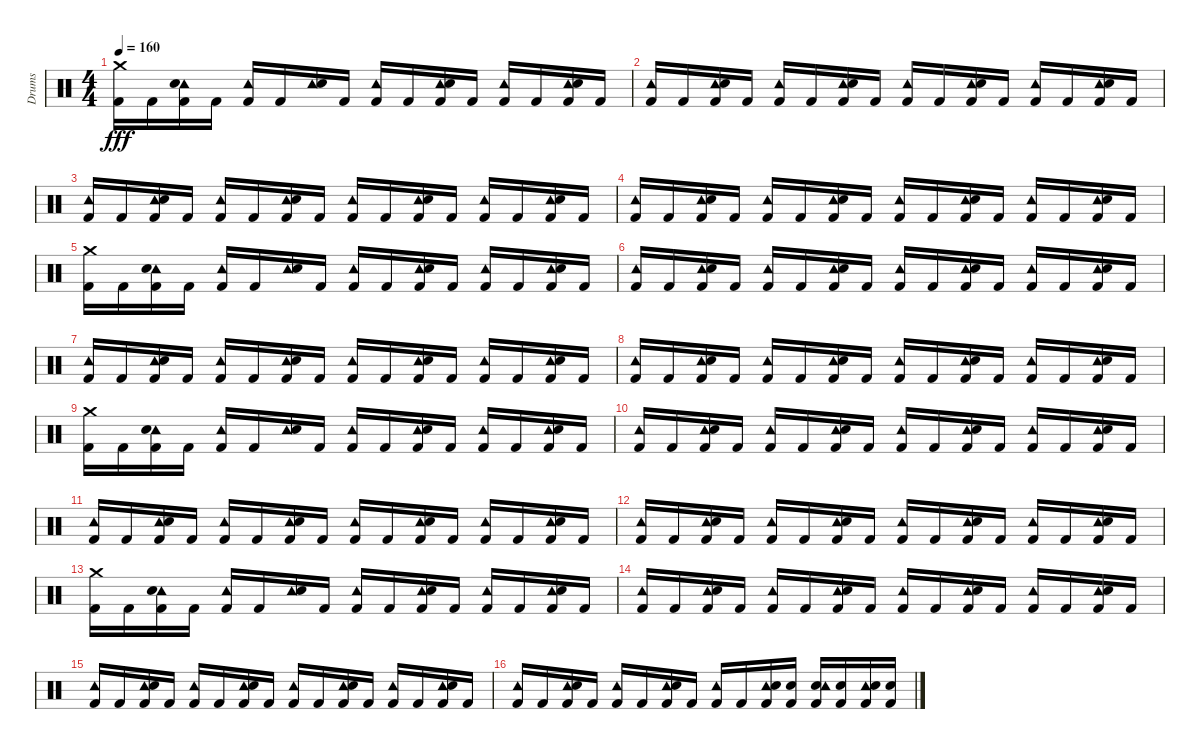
\track ("Drums" "Drums") {instrument percussion}
\staff {score}
\articulation defaults
\ts (4 4)
\tempo 160
\clef neutral
\ks c
("Crash medium (hit)" "Kick (hit) 2").16{dy fff} "Kick (hit) 2".16 ("Kick (hit) 2" "Tambourine (hit)" "Electric Snare (hit)").16 "Kick (hit) 2".16 ("Kick (hit) 2" "Tambourine (hit)").16 "Kick (hit) 2".16 ("Tambourine (hit)" "Electric Snare (hit)").16 "Kick (hit) 2".16 ("Kick (hit) 2" "Tambourine (hit)").16 "Kick (hit) 2".16 ("Kick (hit) 2" "Tambourine (hit)" "Electric Snare (hit)").16 "Kick (hit) 2".16 ("Kick (hit) 2" "Tambourine (hit)").16 "Kick (hit) 2".16 ("Kick (hit) 2" "Tambourine (hit)" "Electric Snare (hit)").16 "Kick (hit) 2".16 |
("Kick (hit) 2" "Tambourine (hit)").16 "Kick (hit) 2".16 ("Kick (hit) 2" "Tambourine (hit)" "Electric Snare (hit)").16 "Kick (hit) 2".16 ("Kick (hit) 2" "Tambourine (hit)").16 "Kick (hit) 2".16 ("Kick (hit) 2" "Tambourine (hit)" "Electric Snare (hit)").16 "Kick (hit) 2".16 ("Kick (hit) 2" "Tambourine (hit)").16 "Kick (hit) 2".16 ("Kick (hit) 2" "Tambourine (hit)" "Electric Snare (hit)").16 "Kick (hit) 2".16 ("Kick (hit) 2" "Tambourine (hit)").16 "Kick (hit) 2".16 ("Kick (hit) 2" "Tambourine (hit)" "Electric Snare (hit)").16 "Kick (hit) 2".16 |
("Kick (hit) 2" "Tambourine (hit)").16 "Kick (hit) 2".16 ("Kick (hit) 2" "Tambourine (hit)" "Electric Snare (hit)").16 "Kick (hit) 2".16 ("Kick (hit) 2" "Tambourine (hit)").16 "Kick (hit) 2".16 ("Kick (hit) 2" "Tambourine (hit)" "Electric Snare (hit)").16 "Kick (hit) 2".16 ("Kick (hit) 2" "Tambourine (hit)").16 "Kick (hit) 2".16 ("Kick (hit) 2" "Tambourine (hit)" "Electric Snare (hit)").16 "Kick (hit) 2".16 ("Kick (hit) 2" "Tambourine (hit)").16 "Kick (hit) 2".16 ("Kick (hit) 2" "Tambourine (hit)" "Electric Snare (hit)").16 "Kick (hit) 2".16 |
("Kick (hit) 2" "Tambourine (hit)").16 "Kick (hit) 2".16 ("Kick (hit) 2" "Tambourine (hit)" "Electric Snare (hit)").16 "Kick (hit) 2".16 ("Kick (hit) 2" "Tambourine (hit)").16 "Kick (hit) 2".16 ("Kick (hit) 2" "Tambourine (hit)" "Electric Snare (hit)").16 "Kick (hit) 2".16 ("Kick (hit) 2" "Tambourine (hit)").16 "Kick (hit) 2".16 ("Kick (hit) 2" "Tambourine (hit)" "Electric Snare (hit)").16 "Kick (hit) 2".16 ("Kick (hit) 2" "Tambourine (hit)").16 "Kick (hit) 2".16 ("Kick (hit) 2" "Tambourine (hit)" "Electric Snare (hit)").16 "Kick (hit) 2".16 |
("Crash medium (hit)" "Kick (hit) 2").16 "Kick (hit) 2".16 ("Kick (hit) 2" "Tambourine (hit)" "Electric Snare (hit)").16 "Kick (hit) 2".16 ("Kick (hit) 2" "Tambourine (hit)").16 "Kick (hit) 2".16 ("Tambourine (hit)" "Electric Snare (hit)").16 "Kick (hit) 2".16 ("Kick (hit) 2" "Tambourine (hit)").16 "Kick (hit) 2".16 ("Kick (hit) 2" "Tambourine (hit)" "Electric Snare (hit)").16 "Kick (hit) 2".16 ("Kick (hit) 2" "Tambourine (hit)").16 "Kick (hit) 2".16 ("Kick (hit) 2" "Tambourine (hit)" "Electric Snare (hit)").16 "Kick (hit) 2".16 |
("Kick (hit) 2" "Tambourine (hit)").16 "Kick (hit) 2".16 ("Kick (hit) 2" "Tambourine (hit)" "Electric Snare (hit)").16 "Kick (hit) 2".16 ("Kick (hit) 2" "Tambourine (hit)").16 "Kick (hit) 2".16 ("Kick (hit) 2" "Tambourine (hit)" "Electric Snare (hit)").16 "Kick (hit) 2".16 ("Kick (hit) 2" "Tambourine (hit)").16 "Kick (hit) 2".16 ("Kick (hit) 2" "Tambourine (hit)" "Electric Snare (hit)").16 "Kick (hit) 2".16 ("Kick (hit) 2" "Tambourine (hit)").16 "Kick (hit) 2".16 ("Kick (hit) 2" "Tambourine (hit)" "Electric Snare (hit)").16 "Kick (hit) 2".16 |
("Kick (hit) 2" "Tambourine (hit)").16 "Kick (hit) 2".16 ("Kick (hit) 2" "Tambourine (hit)" "Electric Snare (hit)").16 "Kick (hit) 2".16 ("Kick (hit) 2" "Tambourine (hit)").16 "Kick (hit) 2".16 ("Kick (hit) 2" "Tambourine (hit)" "Electric Snare (hit)").16 "Kick (hit) 2".16 ("Kick (hit) 2" "Tambourine (hit)").16 "Kick (hit) 2".16 ("Kick (hit) 2" "Tambourine (hit)" "Electric Snare (hit)").16 "Kick (hit) 2".16 ("Kick (hit) 2" "Tambourine (hit)").16 "Kick (hit) 2".16 ("Kick (hit) 2" "Tambourine (hit)" "Electric Snare (hit)").16 "Kick (hit) 2".16 |
("Kick (hit) 2" "Tambourine (hit)").16 "Kick (hit) 2".16 ("Kick (hit) 2" "Tambourine (hit)" "Electric Snare (hit)").16 "Kick (hit) 2".16 ("Kick (hit) 2" "Tambourine (hit)").16 "Kick (hit) 2".16 ("Kick (hit) 2" "Tambourine (hit)" "Electric Snare (hit)").16 "Kick (hit) 2".16 ("Kick (hit) 2" "Tambourine (hit)").16 "Kick (hit) 2".16 ("Kick (hit) 2" "Tambourine (hit)" "Electric Snare (hit)").16 "Kick (hit) 2".16 ("Kick (hit) 2" "Tambourine (hit)").16 "Kick (hit) 2".16 ("Kick (hit) 2" "Tambourine (hit)" "Electric Snare (hit)").16 "Kick (hit) 2".16 |
("Crash medium (hit)" "Kick (hit) 2").16 "Kick (hit) 2".16 ("Kick (hit) 2" "Tambourine (hit)" "Electric Snare (hit)").16 "Kick (hit) 2".16 ("Kick (hit) 2" "Tambourine (hit)").16 "Kick (hit) 2".16 ("Tambourine (hit)" "Electric Snare (hit)").16 "Kick (hit) 2".16 ("Kick (hit) 2" "Tambourine (hit)").16 "Kick (hit) 2".16 ("Kick (hit) 2" "Tambourine (hit)" "Electric Snare (hit)").16 "Kick (hit) 2".16 ("Kick (hit) 2" "Tambourine (hit)").16 "Kick (hit) 2".16 ("Kick (hit) 2" "Tambourine (hit)" "Electric Snare (hit)").16 "Kick (hit) 2".16 |
("Kick (hit) 2" "Tambourine (hit)").16 "Kick (hit) 2".16 ("Kick (hit) 2" "Tambourine (hit)" "Electric Snare (hit)").16 "Kick (hit) 2".16 ("Kick (hit) 2" "Tambourine (hit)").16 "Kick (hit) 2".16 ("Kick (hit) 2" "Tambourine (hit)" "Electric Snare (hit)").16 "Kick (hit) 2".16 ("Kick (hit) 2" "Tambourine (hit)").16 "Kick (hit) 2".16 ("Kick (hit) 2" "Tambourine (hit)" "Electric Snare (hit)").16 "Kick (hit) 2".16 ("Kick (hit) 2" "Tambourine (hit)").16 "Kick (hit) 2".16 ("Kick (hit) 2" "Tambourine (hit)" "Electric Snare (hit)").16 "Kick (hit) 2".16 |
("Kick (hit) 2" "Tambourine (hit)").16 "Kick (hit) 2".16 ("Kick (hit) 2" "Tambourine (hit)" "Electric Snare (hit)").16 "Kick (hit) 2".16 ("Kick (hit) 2" "Tambourine (hit)").16 "Kick (hit) 2".16 ("Kick (hit) 2" "Tambourine (hit)" "Electric Snare (hit)").16 "Kick (hit) 2".16 ("Kick (hit) 2" "Tambourine (hit)").16 "Kick (hit) 2".16 ("Kick (hit) 2" "Tambourine (hit)" "Electric Snare (hit)").16 "Kick (hit) 2".16 ("Kick (hit) 2" "Tambourine (hit)").16 "Kick (hit) 2".16 ("Kick (hit) 2" "Tambourine (hit)" "Electric Snare (hit)").16 "Kick (hit) 2".16 |
("Kick (hit) 2" "Tambourine (hit)").16 "Kick (hit) 2".16 ("Kick (hit) 2" "Tambourine (hit)" "Electric Snare (hit)").16 "Kick (hit) 2".16 ("Kick (hit) 2" "Tambourine (hit)").16 "Kick (hit) 2".16 ("Kick (hit) 2" "Tambourine (hit)" "Electric Snare (hit)").16 "Kick (hit) 2".16 ("Kick (hit) 2" "Tambourine (hit)").16 "Kick (hit) 2".16 ("Kick (hit) 2" "Tambourine (hit)" "Electric Snare (hit)").16 "Kick (hit) 2".16 ("Kick (hit) 2" "Tambourine (hit)").16 "Kick (hit) 2".16 ("Kick (hit) 2" "Tambourine (hit)" "Electric Snare (hit)").16 "Kick (hit) 2".16 |
("Crash medium (hit)" "Kick (hit) 2").16 "Kick (hit) 2".16 ("Kick (hit) 2" "Tambourine (hit)" "Electric Snare (hit)").16 "Kick (hit) 2".16 ("Kick (hit) 2" "Tambourine (hit)").16 "Kick (hit) 2".16 ("Tambourine (hit)" "Electric Snare (hit)").16 "Kick (hit) 2".16 ("Kick (hit) 2" "Tambourine (hit)").16 "Kick (hit) 2".16 ("Kick (hit) 2" "Tambourine (hit)" "Electric Snare (hit)").16 "Kick (hit) 2".16 ("Kick (hit) 2" "Tambourine (hit)").16 "Kick (hit) 2".16 ("Kick (hit) 2" "Tambourine (hit)" "Electric Snare (hit)").16 "Kick (hit) 2".16 |
("Kick (hit) 2" "Tambourine (hit)").16 "Kick (hit) 2".16 ("Kick (hit) 2" "Tambourine (hit)" "Electric Snare (hit)").16 "Kick (hit) 2".16 ("Kick (hit) 2" "Tambourine (hit)").16 "Kick (hit) 2".16 ("Kick (hit) 2" "Tambourine (hit)" "Electric Snare (hit)").16 "Kick (hit) 2".16 ("Kick (hit) 2" "Tambourine (hit)").16 "Kick (hit) 2".16 ("Kick (hit) 2" "Tambourine (hit)" "Electric Snare (hit)").16 "Kick (hit) 2".16 ("Kick (hit) 2" "Tambourine (hit)").16 "Kick (hit) 2".16 ("Kick (hit) 2" "Tambourine (hit)" "Electric Snare (hit)").16 "Kick (hit) 2".16 |
("Kick (hit) 2" "Tambourine (hit)").16 "Kick (hit) 2".16 ("Kick (hit) 2" "Tambourine (hit)" "Electric Snare (hit)").16 "Kick (hit) 2".16 ("Kick (hit) 2" "Tambourine (hit)").16 "Kick (hit) 2".16 ("Kick (hit) 2" "Tambourine (hit)" "Electric Snare (hit)").16 "Kick (hit) 2".16 ("Kick (hit) 2" "Tambourine (hit)").16 "Kick (hit) 2".16 ("Kick (hit) 2" "Tambourine (hit)" "Electric Snare (hit)").16 "Kick (hit) 2".16 ("Kick (hit) 2" "Tambourine (hit)").16 "Kick (hit) 2".16 ("Kick (hit) 2" "Tambourine (hit)" "Electric Snare (hit)").16 "Kick (hit) 2".16 |
("Kick (hit) 2" "Tambourine (hit)").16 "Kick (hit) 2".16 ("Kick (hit) 2" "Tambourine (hit)" "Electric Snare (hit)").16 "Kick (hit) 2".16 ("Kick (hit) 2" "Tambourine (hit)").16 "Kick (hit) 2".16 ("Kick (hit) 2" "Tambourine (hit)" "Electric Snare (hit)").16 "Kick (hit) 2".16 ("Kick (hit) 2" "Tambourine (hit)").16 "Kick (hit) 2".16 ("Kick (hit) 2" "Tambourine (hit)" "Electric Snare (hit)").16 ("Kick (hit) 2" "Electric Snare (hit)").16 ("Electric Snare (hit)" "Kick (hit) 2" "Tambourine (hit)").16 ("Electric Snare (hit)" "Kick (hit) 2").16 ("Kick (hit) 2" "Tambourine (hit)" "Electric Snare (hit)").16 ("Electric Snare (hit)" "Kick (hit) 2").16
